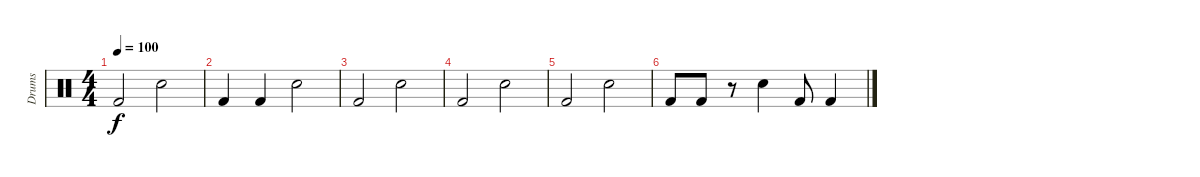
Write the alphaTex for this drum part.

\track ("Drums" "Drums") {instrument percussion}
\staff {score}
\articulation defaults
\ts (4 4)
\tempo 100
\clef neutral
\ks c "Kick (hit) 2".2{dy f} "Snare (hit) 2".2
|
"Kick (hit) 2".4 "Kick (hit) 2".4 "Snare (hit) 2".2 |
"Kick (hit) 2".2 "Snare (hit) 2".2 |
"Kick (hit) 2".2 "Snare (hit) 2".2 |
"Kick (hit) 2".2 "Snare (hit) 2".2 |
"Kick (hit) 2".8 "Kick (hit) 2".8 r.8 "Snare (hit) 2".4 "Kick (hit) 2".8 "Kick (hit) 2".4
